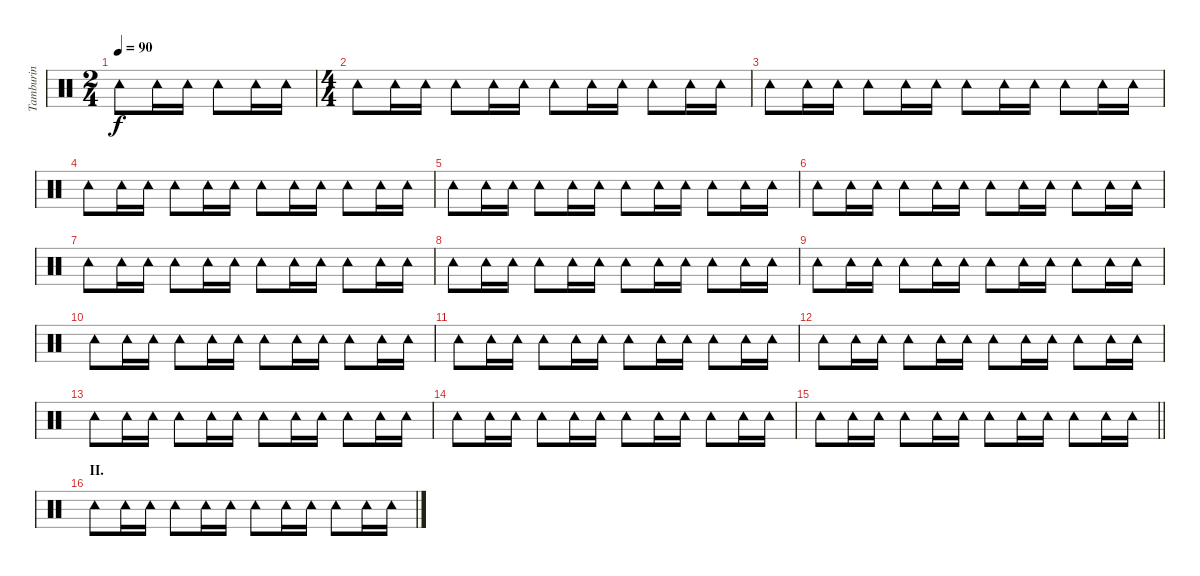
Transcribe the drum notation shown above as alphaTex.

\track ("Tamburin" "Tamburin") {instrument percussion}
\staff {score}
\articulation defaults
\ts (2 4)
\tempo 90
\clef neutral
\ks c "Tambourine (hit)".8{dy f} "Tambourine (hit)".16 "Tambourine (hit)".16 "Tambourine (hit)".8 "Tambourine (hit)".16 "Tambourine (hit)".16
|
\ts (4 4)
"Tambourine (hit)".8 "Tambourine (hit)".16 "Tambourine (hit)".16 "Tambourine (hit)".8 "Tambourine (hit)".16 "Tambourine (hit)".16 "Tambourine (hit)".8 "Tambourine (hit)".16 "Tambourine (hit)".16 "Tambourine (hit)".8 "Tambourine (hit)".16 "Tambourine (hit)".16 |
"Tambourine (hit)".8 "Tambourine (hit)".16 "Tambourine (hit)".16 "Tambourine (hit)".8 "Tambourine (hit)".16 "Tambourine (hit)".16 "Tambourine (hit)".8 "Tambourine (hit)".16 "Tambourine (hit)".16 "Tambourine (hit)".8 "Tambourine (hit)".16 "Tambourine (hit)".16 |
"Tambourine (hit)".8 "Tambourine (hit)".16 "Tambourine (hit)".16 "Tambourine (hit)".8 "Tambourine (hit)".16 "Tambourine (hit)".16 "Tambourine (hit)".8 "Tambourine (hit)".16 "Tambourine (hit)".16 "Tambourine (hit)".8 "Tambourine (hit)".16 "Tambourine (hit)".16 |
"Tambourine (hit)".8 "Tambourine (hit)".16 "Tambourine (hit)".16 "Tambourine (hit)".8 "Tambourine (hit)".16 "Tambourine (hit)".16 "Tambourine (hit)".8 "Tambourine (hit)".16 "Tambourine (hit)".16 "Tambourine (hit)".8 "Tambourine (hit)".16 "Tambourine (hit)".16 |
"Tambourine (hit)".8 "Tambourine (hit)".16 "Tambourine (hit)".16 "Tambourine (hit)".8 "Tambourine (hit)".16 "Tambourine (hit)".16 "Tambourine (hit)".8 "Tambourine (hit)".16 "Tambourine (hit)".16 "Tambourine (hit)".8 "Tambourine (hit)".16 "Tambourine (hit)".16 |
"Tambourine (hit)".8 "Tambourine (hit)".16 "Tambourine (hit)".16 "Tambourine (hit)".8 "Tambourine (hit)".16 "Tambourine (hit)".16 "Tambourine (hit)".8 "Tambourine (hit)".16 "Tambourine (hit)".16 "Tambourine (hit)".8 "Tambourine (hit)".16 "Tambourine (hit)".16 |
"Tambourine (hit)".8 "Tambourine (hit)".16 "Tambourine (hit)".16 "Tambourine (hit)".8 "Tambourine (hit)".16 "Tambourine (hit)".16 "Tambourine (hit)".8 "Tambourine (hit)".16 "Tambourine (hit)".16 "Tambourine (hit)".8 "Tambourine (hit)".16 "Tambourine (hit)".16 |
"Tambourine (hit)".8 "Tambourine (hit)".16 "Tambourine (hit)".16 "Tambourine (hit)".8 "Tambourine (hit)".16 "Tambourine (hit)".16 "Tambourine (hit)".8 "Tambourine (hit)".16 "Tambourine (hit)".16 "Tambourine (hit)".8 "Tambourine (hit)".16 "Tambourine (hit)".16 |
"Tambourine (hit)".8 "Tambourine (hit)".16 "Tambourine (hit)".16 "Tambourine (hit)".8 "Tambourine (hit)".16 "Tambourine (hit)".16 "Tambourine (hit)".8 "Tambourine (hit)".16 "Tambourine (hit)".16 "Tambourine (hit)".8 "Tambourine (hit)".16 "Tambourine (hit)".16 |
"Tambourine (hit)".8 "Tambourine (hit)".16 "Tambourine (hit)".16 "Tambourine (hit)".8 "Tambourine (hit)".16 "Tambourine (hit)".16 "Tambourine (hit)".8 "Tambourine (hit)".16 "Tambourine (hit)".16 "Tambourine (hit)".8 "Tambourine (hit)".16 "Tambourine (hit)".16 |
"Tambourine (hit)".8 "Tambourine (hit)".16 "Tambourine (hit)".16 "Tambourine (hit)".8 "Tambourine (hit)".16 "Tambourine (hit)".16 "Tambourine (hit)".8 "Tambourine (hit)".16 "Tambourine (hit)".16 "Tambourine (hit)".8 "Tambourine (hit)".16 "Tambourine (hit)".16 |
"Tambourine (hit)".8 "Tambourine (hit)".16 "Tambourine (hit)".16 "Tambourine (hit)".8 "Tambourine (hit)".16 "Tambourine (hit)".16 "Tambourine (hit)".8 "Tambourine (hit)".16 "Tambourine (hit)".16 "Tambourine (hit)".8 "Tambourine (hit)".16 "Tambourine (hit)".16 |
"Tambourine (hit)".8 "Tambourine (hit)".16 "Tambourine (hit)".16 "Tambourine (hit)".8 "Tambourine (hit)".16 "Tambourine (hit)".16 "Tambourine (hit)".8 "Tambourine (hit)".16 "Tambourine (hit)".16 "Tambourine (hit)".8 "Tambourine (hit)".16 "Tambourine (hit)".16 |
\barLineRight lightlight "Tambourine (hit)".8 "Tambourine (hit)".16 "Tambourine (hit)".16 "Tambourine (hit)".8 "Tambourine (hit)".16 "Tambourine (hit)".16 "Tambourine (hit)".8 "Tambourine (hit)".16 "Tambourine (hit)".16 "Tambourine (hit)".8 "Tambourine (hit)".16 "Tambourine (hit)".16
|
\section ("" "II.")
"Tambourine (hit)".8 "Tambourine (hit)".16 "Tambourine (hit)".16 "Tambourine (hit)".8 "Tambourine (hit)".16 "Tambourine (hit)".16 "Tambourine (hit)".8 "Tambourine (hit)".16 "Tambourine (hit)".16 "Tambourine (hit)".8 "Tambourine (hit)".16 "Tambourine (hit)".16
